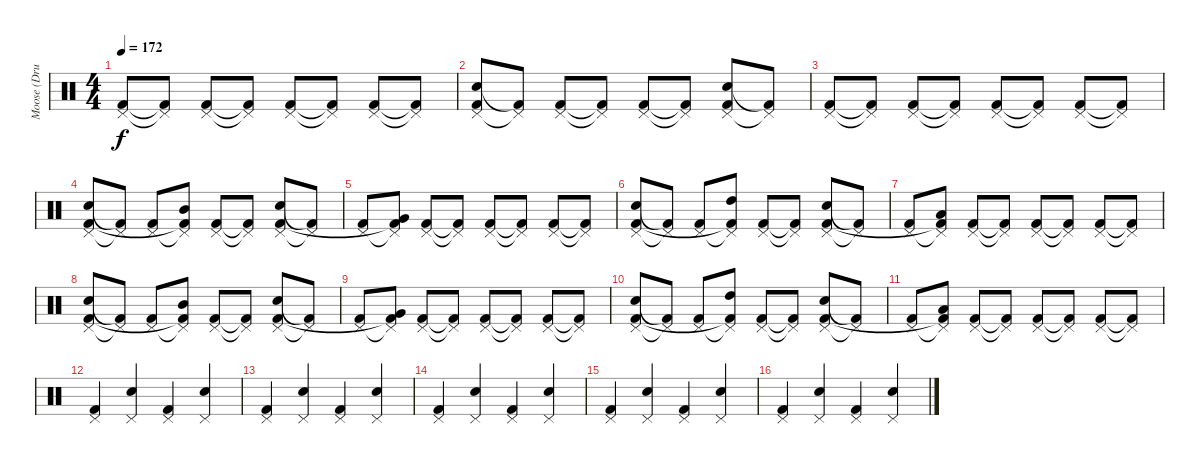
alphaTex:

\track ("Moose (Drums)" "Moose (Dru") {instrument percussion}
\staff {score}
\articulation defaults
\ts (4 4)
\tempo 172
\clef neutral
\ks c
("Pedal Hi-Hat (hit)" "Kick (hit) 2").8{dy f} ("Pedal Hi-Hat (hit)"{t} "Kick (hit) 2"{t}).8 ("Pedal Hi-Hat (hit)" "Kick (hit) 2").8 ("Pedal Hi-Hat (hit)"{t} "Kick (hit) 2"{t}).8 ("Pedal Hi-Hat (hit)" "Kick (hit) 2").8 ("Pedal Hi-Hat (hit)"{t} "Kick (hit) 2"{t}).8 ("Pedal Hi-Hat (hit)" "Kick (hit) 2").8 ("Pedal Hi-Hat (hit)"{t} "Kick (hit) 2"{t}).8 |
("Pedal Hi-Hat (hit)" "Electric Snare (hit)" "Kick (hit) 2").8 ("Pedal Hi-Hat (hit)"{t} "Kick (hit) 2"{t}).8 ("Pedal Hi-Hat (hit)" "Kick (hit) 2").8 ("Pedal Hi-Hat (hit)"{t} "Kick (hit) 2"{t}).8 ("Pedal Hi-Hat (hit)" "Kick (hit) 2").8 ("Pedal Hi-Hat (hit)"{t} "Kick (hit) 2"{t}).8 ("Pedal Hi-Hat (hit)" "Electric Snare (hit)" "Kick (hit) 2").8 ("Pedal Hi-Hat (hit)"{t} "Kick (hit) 2"{t}).8 |
("Pedal Hi-Hat (hit)" "Kick (hit) 2").8 ("Pedal Hi-Hat (hit)"{t} "Kick (hit) 2"{t}).8 ("Pedal Hi-Hat (hit)" "Kick (hit) 2").8 ("Pedal Hi-Hat (hit)"{t} "Kick (hit) 2"{t}).8 ("Pedal Hi-Hat (hit)" "Kick (hit) 2").8 ("Pedal Hi-Hat (hit)"{t} "Kick (hit) 2"{t}).8 ("Pedal Hi-Hat (hit)" "Kick (hit) 2").8 ("Pedal Hi-Hat (hit)"{t} "Kick (hit) 2"{t}).8 |
("Pedal Hi-Hat (hit)" "Electric Snare (hit)" "Kick (hit) 2").8 ("Pedal Hi-Hat (hit)"{t} "Kick (hit) 2"{t}).8 ("Pedal Hi-Hat (hit)" "Kick (hit) 2").8 ("Pedal Hi-Hat (hit)"{t} "Mid Tom (hit)" "Kick (hit) 2"{t}).8 ("Pedal Hi-Hat (hit)" "Kick (hit) 2").8 ("Pedal Hi-Hat (hit)"{t} "Kick (hit) 2"{t}).8 ("Pedal Hi-Hat (hit)" "Electric Snare (hit)" "Kick (hit) 2").8 ("Pedal Hi-Hat (hit)"{t} "Kick (hit) 2"{t}).8 |
("Pedal Hi-Hat (hit)" "Kick (hit) 2").8 ("Pedal Hi-Hat (hit)"{t} "Very Low Tom (hit)" "Kick (hit) 2"{t}).8 ("Pedal Hi-Hat (hit)" "Kick (hit) 2").8 ("Pedal Hi-Hat (hit)"{t} "Kick (hit) 2"{t}).8 ("Pedal Hi-Hat (hit)" "Kick (hit) 2").8 ("Pedal Hi-Hat (hit)"{t} "Kick (hit) 2"{t}).8 ("Pedal Hi-Hat (hit)" "Kick (hit) 2").8 ("Pedal Hi-Hat (hit)"{t} "Kick (hit) 2"{t}).8 |
("Pedal Hi-Hat (hit)" "Electric Snare (hit)" "Kick (hit) 2").8 ("Pedal Hi-Hat (hit)"{t} "Kick (hit) 2"{t}).8 ("Pedal Hi-Hat (hit)" "Kick (hit) 2").8 ("Pedal Hi-Hat (hit)"{t} "High Tom (hit)" "Kick (hit) 2"{t}).8 ("Pedal Hi-Hat (hit)" "Kick (hit) 2").8 ("Pedal Hi-Hat (hit)"{t} "Kick (hit) 2"{t}).8 ("Pedal Hi-Hat (hit)" "Electric Snare (hit)" "Kick (hit) 2").8 ("Pedal Hi-Hat (hit)"{t} "Kick (hit) 2"{t}).8 |
("Pedal Hi-Hat (hit)" "Kick (hit) 2").8 ("Pedal Hi-Hat (hit)"{t} "Low Tom (hit)" "Kick (hit) 2"{t}).8 ("Pedal Hi-Hat (hit)" "Kick (hit) 2").8 ("Pedal Hi-Hat (hit)"{t} "Kick (hit) 2"{t}).8 ("Pedal Hi-Hat (hit)" "Kick (hit) 2").8 ("Pedal Hi-Hat (hit)"{t} "Kick (hit) 2"{t}).8 ("Pedal Hi-Hat (hit)" "Kick (hit) 2").8 ("Pedal Hi-Hat (hit)"{t} "Kick (hit) 2"{t}).8 |
("Pedal Hi-Hat (hit)" "Electric Snare (hit)" "Kick (hit) 2").8 ("Pedal Hi-Hat (hit)"{t} "Kick (hit) 2"{t}).8 ("Pedal Hi-Hat (hit)" "Kick (hit) 2").8 ("Pedal Hi-Hat (hit)"{t} "Mid Tom (hit)" "Kick (hit) 2"{t}).8 ("Pedal Hi-Hat (hit)" "Kick (hit) 2").8 ("Pedal Hi-Hat (hit)"{t} "Kick (hit) 2"{t}).8 ("Pedal Hi-Hat (hit)" "Electric Snare (hit)" "Kick (hit) 2").8 ("Pedal Hi-Hat (hit)"{t} "Kick (hit) 2"{t}).8 |
("Pedal Hi-Hat (hit)" "Kick (hit) 2").8 ("Pedal Hi-Hat (hit)"{t} "Very Low Tom (hit)" "Kick (hit) 2"{t}).8 ("Pedal Hi-Hat (hit)" "Kick (hit) 2").8 ("Pedal Hi-Hat (hit)"{t} "Kick (hit) 2"{t}).8 ("Pedal Hi-Hat (hit)" "Kick (hit) 2").8 ("Pedal Hi-Hat (hit)"{t} "Kick (hit) 2"{t}).8 ("Pedal Hi-Hat (hit)" "Kick (hit) 2").8 ("Pedal Hi-Hat (hit)"{t} "Kick (hit) 2"{t}).8 |
("Pedal Hi-Hat (hit)" "Electric Snare (hit)" "Kick (hit) 2").8 ("Pedal Hi-Hat (hit)"{t} "Kick (hit) 2"{t}).8 ("Pedal Hi-Hat (hit)" "Kick (hit) 2").8 ("Pedal Hi-Hat (hit)"{t} "High Tom (hit)" "Kick (hit) 2"{t}).8 ("Pedal Hi-Hat (hit)" "Kick (hit) 2").8 ("Pedal Hi-Hat (hit)"{t} "Kick (hit) 2"{t}).8 ("Pedal Hi-Hat (hit)" "Electric Snare (hit)" "Kick (hit) 2").8 ("Pedal Hi-Hat (hit)"{t} "Kick (hit) 2"{t}).8 |
("Pedal Hi-Hat (hit)" "Kick (hit) 2").8 ("Pedal Hi-Hat (hit)"{t} "Low Tom (hit)" "Kick (hit) 2"{t}).8 ("Pedal Hi-Hat (hit)" "Kick (hit) 2").8 ("Pedal Hi-Hat (hit)"{t} "Kick (hit) 2"{t}).8 ("Pedal Hi-Hat (hit)" "Kick (hit) 2").8 ("Pedal Hi-Hat (hit)"{t} "Kick (hit) 2"{t}).8 ("Pedal Hi-Hat (hit)" "Kick (hit) 2").8 ("Pedal Hi-Hat (hit)"{t} "Kick (hit) 2"{t}).8 |
("Pedal Hi-Hat (hit)" "Kick (hit) 2").4 ("Pedal Hi-Hat (hit)" "Electric Snare (hit)").4 ("Pedal Hi-Hat (hit)" "Kick (hit) 2").4 ("Pedal Hi-Hat (hit)" "Electric Snare (hit)").4 |
("Pedal Hi-Hat (hit)" "Kick (hit) 2").4 ("Pedal Hi-Hat (hit)" "Electric Snare (hit)").4 ("Pedal Hi-Hat (hit)" "Kick (hit) 2").4 ("Pedal Hi-Hat (hit)" "Electric Snare (hit)").4 |
("Pedal Hi-Hat (hit)" "Kick (hit) 2").4 ("Pedal Hi-Hat (hit)" "Electric Snare (hit)").4 ("Pedal Hi-Hat (hit)" "Kick (hit) 2").4 ("Pedal Hi-Hat (hit)" "Electric Snare (hit)").4 |
("Pedal Hi-Hat (hit)" "Kick (hit) 2").4 ("Pedal Hi-Hat (hit)" "Electric Snare (hit)").4 ("Pedal Hi-Hat (hit)" "Kick (hit) 2").4 ("Pedal Hi-Hat (hit)" "Electric Snare (hit)").4 |
("Pedal Hi-Hat (hit)" "Kick (hit) 2").4 ("Pedal Hi-Hat (hit)" "Electric Snare (hit)").4 ("Pedal Hi-Hat (hit)" "Kick (hit) 2").4 ("Pedal Hi-Hat (hit)" "Electric Snare (hit)").4
